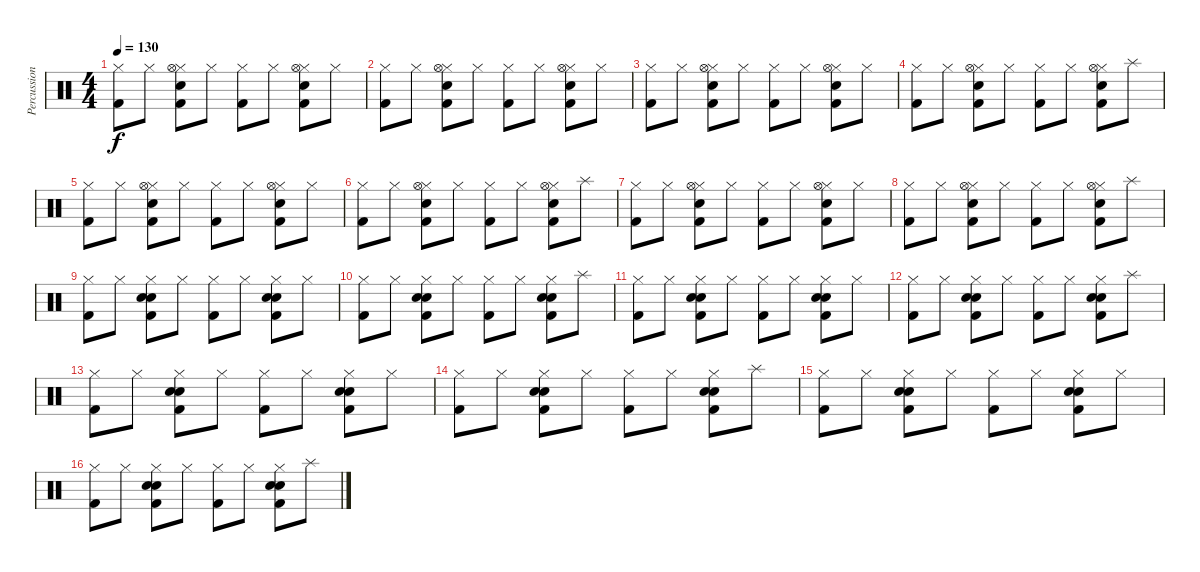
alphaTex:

\track ("Percussion" "Percussion") {instrument percussion}
\staff {score}
\articulation defaults
\ts (4 4)
\tempo 130
\clef neutral
\ks c
("Hi-Hat (closed)" "Kick (hit) 2").8{dy f volume 13} "Hi-Hat (closed)".8 ("Hi-Hat (closed)" "Hi-Hat (open)" "Electric Snare (hit)" "Kick (hit) 2").8 "Hi-Hat (closed)".8 ("Hi-Hat (closed)" "Kick (hit) 2").8 "Hi-Hat (closed)".8 ("Hi-Hat (closed)" "Hi-Hat (open)" "Electric Snare (hit)" "Kick (hit) 2").8 "Hi-Hat (closed)".8 |
("Hi-Hat (closed)" "Kick (hit) 2").8 "Hi-Hat (closed)".8 ("Hi-Hat (closed)" "Hi-Hat (open)" "Electric Snare (hit)" "Kick (hit) 2").8 "Hi-Hat (closed)".8 ("Hi-Hat (closed)" "Kick (hit) 2").8 "Hi-Hat (closed)".8 ("Hi-Hat (closed)" "Hi-Hat (open)" "Electric Snare (hit)" "Kick (hit) 2").8 "Hi-Hat (closed)".8 |
("Hi-Hat (closed)" "Kick (hit) 2").8 "Hi-Hat (closed)".8 ("Hi-Hat (closed)" "Hi-Hat (open)" "Electric Snare (hit)" "Kick (hit) 2").8 "Hi-Hat (closed)".8 ("Hi-Hat (closed)" "Kick (hit) 2").8 "Hi-Hat (closed)".8 ("Hi-Hat (closed)" "Hi-Hat (open)" "Electric Snare (hit)" "Kick (hit) 2").8 "Hi-Hat (closed)".8 |
("Hi-Hat (closed)" "Kick (hit) 2").8 "Hi-Hat (closed)".8 ("Hi-Hat (closed)" "Hi-Hat (open)" "Electric Snare (hit)" "Kick (hit) 2").8 "Hi-Hat (closed)".8 ("Hi-Hat (closed)" "Kick (hit) 2").8 "Hi-Hat (closed)".8 ("Hi-Hat (closed)" "Hi-Hat (open)" "Electric Snare (hit)" "Kick (hit) 2").8 "Splash (hit)".8 |
("Hi-Hat (closed)" "Kick (hit) 2").8 "Hi-Hat (closed)".8 ("Hi-Hat (closed)" "Hi-Hat (open)" "Electric Snare (hit)" "Kick (hit) 2").8 "Hi-Hat (closed)".8 ("Hi-Hat (closed)" "Kick (hit) 2").8 "Hi-Hat (closed)".8 ("Hi-Hat (closed)" "Hi-Hat (open)" "Electric Snare (hit)" "Kick (hit) 2").8 "Hi-Hat (closed)".8 |
("Hi-Hat (closed)" "Kick (hit) 2").8 "Hi-Hat (closed)".8 ("Hi-Hat (closed)" "Hi-Hat (open)" "Electric Snare (hit)" "Kick (hit) 2").8 "Hi-Hat (closed)".8 ("Hi-Hat (closed)" "Kick (hit) 2").8 "Hi-Hat (closed)".8 ("Hi-Hat (closed)" "Hi-Hat (open)" "Electric Snare (hit)" "Kick (hit) 2").8 "Splash (hit)".8 |
("Hi-Hat (closed)" "Kick (hit) 2").8 "Hi-Hat (closed)".8 ("Hi-Hat (closed)" "Hi-Hat (open)" "Electric Snare (hit)" "Kick (hit) 2").8 "Hi-Hat (closed)".8 ("Hi-Hat (closed)" "Kick (hit) 2").8 "Hi-Hat (closed)".8 ("Hi-Hat (closed)" "Hi-Hat (open)" "Electric Snare (hit)" "Kick (hit) 2").8 "Hi-Hat (closed)".8 |
("Hi-Hat (closed)" "Kick (hit) 2").8 "Hi-Hat (closed)".8 ("Hi-Hat (closed)" "Hi-Hat (open)" "Electric Snare (hit)" "Kick (hit) 2").8 "Hi-Hat (closed)".8 ("Hi-Hat (closed)" "Kick (hit) 2").8 "Hi-Hat (closed)".8 ("Hi-Hat (closed)" "Hi-Hat (open)" "Electric Snare (hit)" "Kick (hit) 2").8 "Splash (hit)".8 |
("Hi-Hat (closed)" "Kick (hit) 2").8{volume 13} "Hi-Hat (closed)".8 ("Hi-Hat (closed)" "Electric Snare (hit)" "Electric Snare (hit)" "Kick (hit) 2").8 "Hi-Hat (closed)".8 ("Hi-Hat (closed)" "Kick (hit) 2").8 "Hi-Hat (closed)".8 ("Hi-Hat (closed)" "Electric Snare (hit)" "Electric Snare (hit)" "Kick (hit) 2").8 "Hi-Hat (closed)".8 |
("Hi-Hat (closed)" "Kick (hit) 2").8 "Hi-Hat (closed)".8 ("Hi-Hat (closed)" "Electric Snare (hit)" "Electric Snare (hit)" "Kick (hit) 2").8 "Hi-Hat (closed)".8 ("Hi-Hat (closed)" "Kick (hit) 2").8 "Hi-Hat (closed)".8 ("Hi-Hat (closed)" "Electric Snare (hit)" "Electric Snare (hit)" "Kick (hit) 2").8 "Splash (hit)".8 |
("Hi-Hat (closed)" "Kick (hit) 2").8 "Hi-Hat (closed)".8 ("Hi-Hat (closed)" "Electric Snare (hit)" "Electric Snare (hit)" "Kick (hit) 2").8 "Hi-Hat (closed)".8 ("Hi-Hat (closed)" "Kick (hit) 2").8 "Hi-Hat (closed)".8 ("Hi-Hat (closed)" "Electric Snare (hit)" "Electric Snare (hit)" "Kick (hit) 2").8 "Hi-Hat (closed)".8 |
("Hi-Hat (closed)" "Kick (hit) 2").8 "Hi-Hat (closed)".8 ("Hi-Hat (closed)" "Electric Snare (hit)" "Electric Snare (hit)" "Kick (hit) 2").8 "Hi-Hat (closed)".8 ("Hi-Hat (closed)" "Kick (hit) 2").8 "Hi-Hat (closed)".8 ("Hi-Hat (closed)" "Electric Snare (hit)" "Electric Snare (hit)" "Kick (hit) 2").8 "Splash (hit)".8 |
("Hi-Hat (closed)" "Kick (hit) 2").8 "Hi-Hat (closed)".8 ("Hi-Hat (closed)" "Electric Snare (hit)" "Electric Snare (hit)" "Kick (hit) 2").8 "Hi-Hat (closed)".8 ("Hi-Hat (closed)" "Kick (hit) 2").8 "Hi-Hat (closed)".8 ("Hi-Hat (closed)" "Electric Snare (hit)" "Electric Snare (hit)" "Kick (hit) 2").8 "Hi-Hat (closed)".8 |
("Hi-Hat (closed)" "Kick (hit) 2").8 "Hi-Hat (closed)".8 ("Hi-Hat (closed)" "Electric Snare (hit)" "Electric Snare (hit)" "Kick (hit) 2").8 "Hi-Hat (closed)".8 ("Hi-Hat (closed)" "Kick (hit) 2").8 "Hi-Hat (closed)".8 ("Hi-Hat (closed)" "Electric Snare (hit)" "Electric Snare (hit)" "Kick (hit) 2").8 "Splash (hit)".8 |
("Hi-Hat (closed)" "Kick (hit) 2").8 "Hi-Hat (closed)".8 ("Hi-Hat (closed)" "Electric Snare (hit)" "Electric Snare (hit)" "Kick (hit) 2").8 "Hi-Hat (closed)".8 ("Hi-Hat (closed)" "Kick (hit) 2").8 "Hi-Hat (closed)".8 ("Hi-Hat (closed)" "Electric Snare (hit)" "Electric Snare (hit)" "Kick (hit) 2").8 "Hi-Hat (closed)".8 |
("Hi-Hat (closed)" "Kick (hit) 2").8 "Hi-Hat (closed)".8 ("Hi-Hat (closed)" "Electric Snare (hit)" "Electric Snare (hit)" "Kick (hit) 2").8 "Hi-Hat (closed)".8 ("Hi-Hat (closed)" "Kick (hit) 2").8 "Hi-Hat (closed)".8 ("Hi-Hat (closed)" "Electric Snare (hit)" "Electric Snare (hit)" "Kick (hit) 2").8 "Splash (hit)".8
